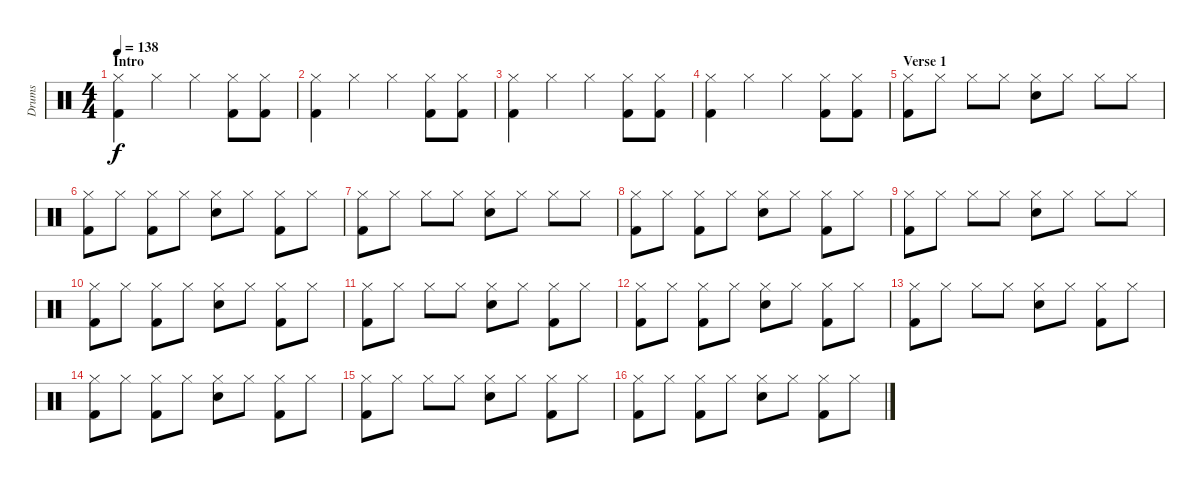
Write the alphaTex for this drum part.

\track ("Drums" "Drums") {instrument percussion}
\staff {score}
\articulation defaults
\ts (4 4)
\section ("" "Intro")
\tempo 138
\clef neutral
\ks c
("Hi-Hat (closed)" "Kick (hit) 2").4{dy f} "Hi-Hat (closed)".4 "Hi-Hat (closed)".4 ("Hi-Hat (closed)" "Kick (hit) 2").8 ("Hi-Hat (closed)" "Kick (hit) 2").8 |
("Hi-Hat (closed)" "Kick (hit) 2").4 "Hi-Hat (closed)".4 "Hi-Hat (closed)".4 ("Hi-Hat (closed)" "Kick (hit) 2").8 ("Hi-Hat (closed)" "Kick (hit) 2").8 |
("Hi-Hat (closed)" "Kick (hit) 2").4 "Hi-Hat (closed)".4 "Hi-Hat (closed)".4 ("Hi-Hat (closed)" "Kick (hit) 2").8 ("Hi-Hat (closed)" "Kick (hit) 2").8 |
("Hi-Hat (closed)" "Kick (hit) 2").4 "Hi-Hat (closed)".4 "Hi-Hat (closed)".4 ("Hi-Hat (closed)" "Kick (hit) 2").8 ("Hi-Hat (closed)" "Kick (hit) 2").8 |
\section ("" "Verse 1")
("Hi-Hat (closed)" "Kick (hit) 2").8 "Hi-Hat (closed)".8 "Hi-Hat (closed)".8 "Hi-Hat (closed)".8 ("Hi-Hat (closed)" "Electric Snare (hit)").8 "Hi-Hat (closed)".8 "Hi-Hat (closed)".8 "Hi-Hat (closed)".8 |
("Hi-Hat (closed)" "Kick (hit) 2").8 "Hi-Hat (closed)".8 ("Hi-Hat (closed)" "Kick (hit) 2").8 "Hi-Hat (closed)".8 ("Hi-Hat (closed)" "Electric Snare (hit)").8 "Hi-Hat (closed)".8 ("Hi-Hat (closed)" "Kick (hit) 2").8 "Hi-Hat (closed)".8 |
("Hi-Hat (closed)" "Kick (hit) 2").8 "Hi-Hat (closed)".8 "Hi-Hat (closed)".8 "Hi-Hat (closed)".8 ("Hi-Hat (closed)" "Electric Snare (hit)").8 "Hi-Hat (closed)".8 "Hi-Hat (closed)".8 "Hi-Hat (closed)".8 |
("Hi-Hat (closed)" "Kick (hit) 2").8 "Hi-Hat (closed)".8 ("Hi-Hat (closed)" "Kick (hit) 2").8 "Hi-Hat (closed)".8 ("Hi-Hat (closed)" "Electric Snare (hit)").8 "Hi-Hat (closed)".8 ("Hi-Hat (closed)" "Kick (hit) 2").8 "Hi-Hat (closed)".8 |
("Hi-Hat (closed)" "Kick (hit) 2").8 "Hi-Hat (closed)".8 "Hi-Hat (closed)".8 "Hi-Hat (closed)".8 ("Hi-Hat (closed)" "Electric Snare (hit)").8 "Hi-Hat (closed)".8 "Hi-Hat (closed)".8 "Hi-Hat (closed)".8 |
("Hi-Hat (closed)" "Kick (hit) 2").8 "Hi-Hat (closed)".8 ("Hi-Hat (closed)" "Kick (hit) 2").8 "Hi-Hat (closed)".8 ("Hi-Hat (closed)" "Electric Snare (hit)").8 "Hi-Hat (closed)".8 ("Hi-Hat (closed)" "Kick (hit) 2").8 "Hi-Hat (closed)".8 |
("Hi-Hat (closed)" "Kick (hit) 2").8 "Hi-Hat (closed)".8 "Hi-Hat (closed)".8 "Hi-Hat (closed)".8 ("Hi-Hat (closed)" "Electric Snare (hit)").8 "Hi-Hat (closed)".8 ("Hi-Hat (closed)" "Kick (hit) 2").8 "Hi-Hat (closed)".8 |
("Hi-Hat (closed)" "Kick (hit) 2").8 "Hi-Hat (closed)".8 ("Hi-Hat (closed)" "Kick (hit) 2").8 "Hi-Hat (closed)".8 ("Hi-Hat (closed)" "Electric Snare (hit)").8 "Hi-Hat (closed)".8 ("Hi-Hat (closed)" "Kick (hit) 2").8 "Hi-Hat (closed)".8 |
("Hi-Hat (closed)" "Kick (hit) 2").8 "Hi-Hat (closed)".8 "Hi-Hat (closed)".8 "Hi-Hat (closed)".8 ("Hi-Hat (closed)" "Electric Snare (hit)").8 "Hi-Hat (closed)".8 ("Hi-Hat (closed)" "Kick (hit) 2").8 "Hi-Hat (closed)".8 |
("Hi-Hat (closed)" "Kick (hit) 2").8 "Hi-Hat (closed)".8 ("Hi-Hat (closed)" "Kick (hit) 2").8 "Hi-Hat (closed)".8 ("Hi-Hat (closed)" "Electric Snare (hit)").8 "Hi-Hat (closed)".8 ("Hi-Hat (closed)" "Kick (hit) 2").8 "Hi-Hat (closed)".8 |
("Hi-Hat (closed)" "Kick (hit) 2").8 "Hi-Hat (closed)".8 "Hi-Hat (closed)".8 "Hi-Hat (closed)".8 ("Hi-Hat (closed)" "Electric Snare (hit)").8 "Hi-Hat (closed)".8 ("Hi-Hat (closed)" "Kick (hit) 2").8 "Hi-Hat (closed)".8 |
("Hi-Hat (closed)" "Kick (hit) 2").8 "Hi-Hat (closed)".8 ("Hi-Hat (closed)" "Kick (hit) 2").8 "Hi-Hat (closed)".8 ("Hi-Hat (closed)" "Electric Snare (hit)").8 "Hi-Hat (closed)".8 ("Hi-Hat (closed)" "Kick (hit) 2").8 "Hi-Hat (closed)".8
